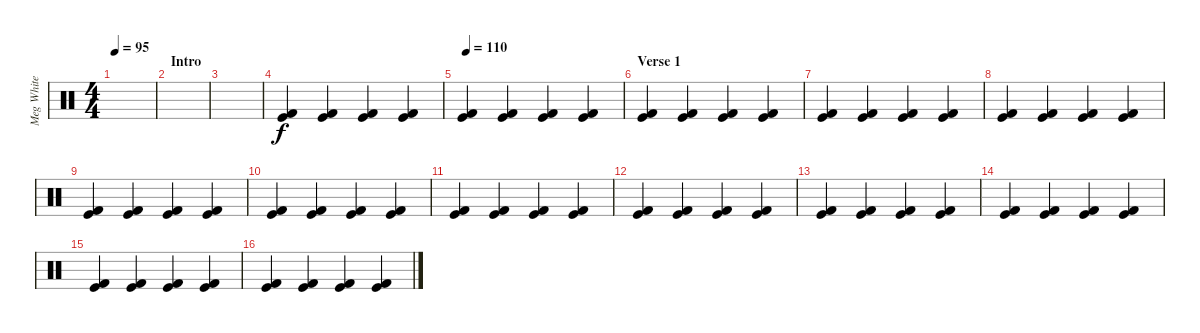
\track ("Meg White (Drums)" "Meg White ") {instrument percussion}
\staff {score}
\articulation defaults
\ts (4 4)
\tempo 95
\clef neutral
\ks c
|
\section ("" "Intro")
|
|
("Kick (hit) 2" "Kick (hit)").4 ("Kick (hit) 2" "Kick (hit)").4 ("Kick (hit) 2" "Kick (hit)").4 ("Kick (hit) 2" "Kick (hit)").4 |
\tempo 110
("Kick (hit) 2" "Kick (hit)").4 ("Kick (hit) 2" "Kick (hit)").4 ("Kick (hit) 2" "Kick (hit)").4 ("Kick (hit) 2" "Kick (hit)").4 |
\section ("" "Verse 1")
("Kick (hit) 2" "Kick (hit)").4 ("Kick (hit) 2" "Kick (hit)").4 ("Kick (hit) 2" "Kick (hit)").4 ("Kick (hit) 2" "Kick (hit)").4 |
("Kick (hit) 2" "Kick (hit)").4 ("Kick (hit) 2" "Kick (hit)").4 ("Kick (hit) 2" "Kick (hit)").4 ("Kick (hit) 2" "Kick (hit)").4 |
("Kick (hit) 2" "Kick (hit)").4 ("Kick (hit) 2" "Kick (hit)").4 ("Kick (hit) 2" "Kick (hit)").4 ("Kick (hit) 2" "Kick (hit)").4 |
("Kick (hit) 2" "Kick (hit)").4 ("Kick (hit) 2" "Kick (hit)").4 ("Kick (hit) 2" "Kick (hit)").4 ("Kick (hit) 2" "Kick (hit)").4 |
("Kick (hit) 2" "Kick (hit)").4 ("Kick (hit) 2" "Kick (hit)").4 ("Kick (hit) 2" "Kick (hit)").4 ("Kick (hit) 2" "Kick (hit)").4 |
("Kick (hit) 2" "Kick (hit)").4 ("Kick (hit) 2" "Kick (hit)").4 ("Kick (hit) 2" "Kick (hit)").4 ("Kick (hit) 2" "Kick (hit)").4 |
("Kick (hit) 2" "Kick (hit)").4 ("Kick (hit) 2" "Kick (hit)").4 ("Kick (hit) 2" "Kick (hit)").4 ("Kick (hit) 2" "Kick (hit)").4 |
("Kick (hit) 2" "Kick (hit)").4 ("Kick (hit) 2" "Kick (hit)").4 ("Kick (hit) 2" "Kick (hit)").4 ("Kick (hit) 2" "Kick (hit)").4 |
("Kick (hit) 2" "Kick (hit)").4 ("Kick (hit) 2" "Kick (hit)").4 ("Kick (hit) 2" "Kick (hit)").4 ("Kick (hit) 2" "Kick (hit)").4 |
("Kick (hit) 2" "Kick (hit)").4 ("Kick (hit) 2" "Kick (hit)").4 ("Kick (hit) 2" "Kick (hit)").4 ("Kick (hit) 2" "Kick (hit)").4 |
("Kick (hit) 2" "Kick (hit)").4 ("Kick (hit) 2" "Kick (hit)").4 ("Kick (hit) 2" "Kick (hit)").4 ("Kick (hit) 2" "Kick (hit)").4
